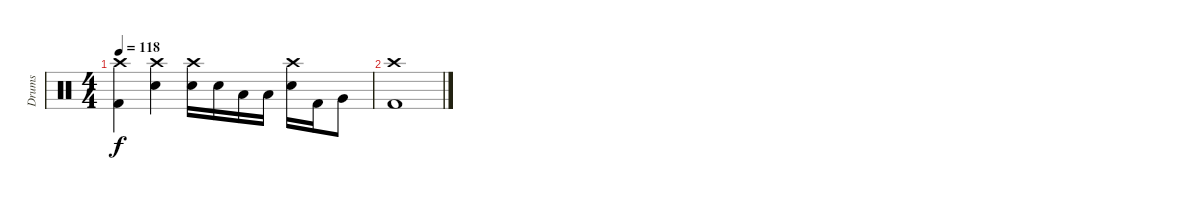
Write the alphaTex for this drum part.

\track ("Drums" "Drums") {instrument percussion}
\staff {score}
\articulation defaults
\ts (4 4)
\tempo 118
\clef neutral
\ks c
("Crash high (hit)" "Kick (hit) 2").4{dy f} ("Crash high (hit)" "Snare (hit) 2").4 ("Crash high (hit)" "Snare (hit) 2").16 "Snare (hit) 2".16 "Low Tom (hit)".16 "Low Tom (hit)".16 ("Crash high (hit)" "Snare (hit) 2").16 "Kick (hit) 2".16 "Very Low Tom (hit)".8 |
("Crash high (hit)" "Kick (hit) 2").1
